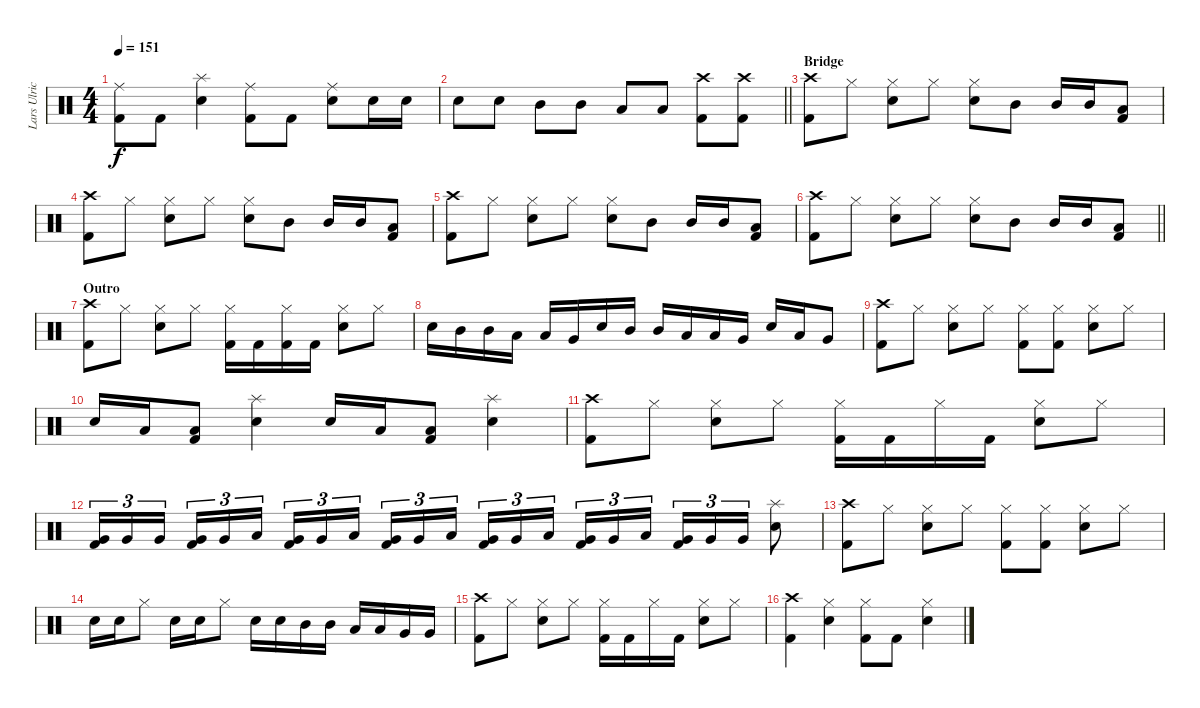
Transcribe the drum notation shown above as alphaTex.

\track ("Lars Ulrich" "Lars Ulric") {instrument percussion}
\staff {score}
\articulation defaults
\ts (4 4)
\tempo 151
\clef neutral
\ks c
("Ride (middle)" "Kick (hit) 2").8{dy f} "Kick (hit) 2".8 ("Splash (hit)" "Snare (hit) 2").4 ("Ride (middle)" "Kick (hit) 2").8 "Kick (hit) 2".8 ("Ride (middle)" "Snare (hit) 2").8 "Snare (hit) 2".16 "Snare (hit) 2".16 |
\barLineRight lightlight "Snare (hit) 2".8 "Snare (hit) 2".8 "Mid Tom (hit)".8 "Mid Tom (hit)".8 "Low Tom (hit)".8 "Low Tom (hit)".8
("Crash high (hit)" "Kick (hit) 2").8 ("Crash high (hit)" "Kick (hit) 2").8 |
\section ("" "Bridge")
("Crash high (hit)" "Kick (hit) 2").8 "Hi-Hat (closed)".8 ("Hi-Hat (closed)" "Snare (hit) 2").8 "Hi-Hat (closed)".8 ("Hi-Hat (closed)" "Snare (hit) 2").8 "Mid Tom (hit)".8 "Mid Tom (hit)".16 "Mid Tom (hit)".16 ("Low Tom (hit)" "Kick (hit) 2").8 |
("Crash high (hit)" "Kick (hit) 2").8 "Hi-Hat (closed)".8 ("Hi-Hat (closed)" "Snare (hit) 2").8 "Hi-Hat (closed)".8 ("Hi-Hat (closed)" "Snare (hit) 2").8 "Mid Tom (hit)".8 "Mid Tom (hit)".16 "Mid Tom (hit)".16 ("Low Tom (hit)" "Kick (hit) 2").8 |
("Crash high (hit)" "Kick (hit) 2").8 "Hi-Hat (closed)".8 ("Hi-Hat (closed)" "Snare (hit) 2").8 "Hi-Hat (closed)".8 ("Hi-Hat (closed)" "Snare (hit) 2").8 "Mid Tom (hit)".8 "Mid Tom (hit)".16 "Mid Tom (hit)".16 ("Low Tom (hit)" "Kick (hit) 2").8 |
\barLineRight lightlight
("Crash high (hit)" "Kick (hit) 2").8 "Hi-Hat (closed)".8 ("Hi-Hat (closed)" "Snare (hit) 2").8 "Hi-Hat (closed)".8 ("Hi-Hat (closed)" "Snare (hit) 2").8 "Mid Tom (hit)".8 "Mid Tom (hit)".16 "Mid Tom (hit)".16 ("Low Tom (hit)" "Kick (hit) 2").8 |
\section ("" "Outro")
("Crash high (hit)" "Kick (hit) 2").8 "Hi-Hat (closed)".8 ("Hi-Hat (closed)" "Snare (hit) 2").8 "Hi-Hat (closed)".8 ("Hi-Hat (closed)" "Kick (hit) 2").16 "Kick (hit) 2".16 ("Hi-Hat (closed)" "Kick (hit) 2").16 "Kick (hit) 2".16 ("Hi-Hat (closed)" "Snare (hit) 2").8 "Hi-Hat (closed)".8 |
"Snare (hit) 2".16 "Mid Tom (hit)".16 "Mid Tom (hit)".16 "Low Tom (hit)".16 "Low Tom (hit)".16 "Very Low Tom (hit)".16 "Snare (hit) 2".16 "Mid Tom (hit)".16 "Mid Tom (hit)".16 "Low Tom (hit)".16 "Low Tom (hit)".16 "Very Low Tom (hit)".16 "Snare (hit) 2".16 "Low Tom (hit)".16 "Very Low Tom (hit)".8 |
("Crash high (hit)" "Kick (hit) 2").8 "Hi-Hat (closed)".8 ("Hi-Hat (closed)" "Snare (hit) 2").8 "Hi-Hat (closed)".8 ("Hi-Hat (closed)" "Kick (hit) 2").8 ("Hi-Hat (closed)" "Kick (hit) 2").8 ("Hi-Hat (closed)" "Snare (hit) 2").8 "Hi-Hat (closed)".8 |
"Snare (hit) 2".16 "Low Tom (hit)".16 ("Low Tom (hit)" "Kick (hit) 2").8 ("Splash (hit)" "Snare (hit) 2").4 "Snare (hit) 2".16 "Low Tom (hit)".16 ("Low Tom (hit)" "Kick (hit) 2").8 ("Splash (hit)" "Snare (hit) 2").4 |
("Crash high (hit)" "Kick (hit) 2").8 "Hi-Hat (closed)".8 ("Hi-Hat (closed)" "Snare (hit) 2").8 "Hi-Hat (closed)".8 ("Hi-Hat (closed)" "Kick (hit) 2").16 "Kick (hit) 2".16 "Hi-Hat (closed)".16 "Kick (hit) 2".16 ("Hi-Hat (closed)" "Snare (hit) 2").8 "Hi-Hat (closed)".8 |
("Very Low Tom (hit)" "Kick (hit) 2").16{tu (3 2)} "Very Low Tom (hit)".16{tu (3 2)} "Very Low Tom (hit)".16{tu (3 2) beam splitsecondary} ("Very Low Tom (hit)" "Kick (hit) 2").16{tu (3 2)} "Very Low Tom (hit)".16{tu (3 2)} "Low Floor Tom (hit)".16{tu (3 2)} ("Very Low Tom (hit)" "Kick (hit) 2").16{tu (3 2)} "Very Low Tom (hit)".16{tu (3 2)} "Low Floor Tom (hit)".16{tu (3 2) beam splitsecondary} ("Very Low Tom (hit)" "Kick (hit) 2").16{tu (3 2)} "Very Low Tom (hit)".16{tu (3 2)} "Low Floor Tom (hit)".16{tu (3 2)} ("Very Low Tom (hit)" "Kick (hit) 2").16{tu (3 2)} "Very Low Tom (hit)".16{tu (3 2)} "Low Floor Tom (hit)".16{tu (3 2) beam splitsecondary} ("Very Low Tom (hit)" "Kick (hit) 2").16{tu (3 2)} "Very Low Tom (hit)".16{tu (3 2)} "Low Floor Tom (hit)".16{tu (3 2)} ("Very Low Tom (hit)" "Kick (hit) 2").16{tu (3 2)} "Very Low Tom (hit)".16{tu (3 2)} "Very Low Tom (hit)".16{tu (3 2)} ("Splash (hit)" "Snare (hit) 2").8 |
("Crash high (hit)" "Kick (hit) 2").8 "Hi-Hat (closed)".8 ("Hi-Hat (closed)" "Snare (hit) 2").8 "Hi-Hat (closed)".8 ("Hi-Hat (closed)" "Kick (hit) 2").8 ("Hi-Hat (closed)" "Kick (hit) 2").8 ("Hi-Hat (closed)" "Snare (hit) 2").8 "Hi-Hat (closed)".8 |
"Snare (hit) 2".16 "Snare (hit) 2".16 "Hi-Hat (closed)".8 "Snare (hit) 2".16 "Snare (hit) 2".16 "Hi-Hat (closed)".8 "Snare (hit) 2".16 "Snare (hit) 2".16 "Mid Tom (hit)".16 "Mid Tom (hit)".16 "Low Tom (hit)".16 "Low Tom (hit)".16 "Very Low Tom (hit)".16 "Very Low Tom (hit)".16 |
("Crash high (hit)" "Kick (hit) 2").8 "Hi-Hat (closed)".8 ("Hi-Hat (closed)" "Snare (hit) 2").8 "Hi-Hat (closed)".8 ("Hi-Hat (closed)" "Kick (hit) 2").16 "Kick (hit) 2".16 "Hi-Hat (closed)".16 "Kick (hit) 2".16 ("Hi-Hat (closed)" "Snare (hit) 2").8 "Hi-Hat (closed)".8 |
("Crash high (hit)" "Kick (hit) 2").4 ("Hi-Hat (closed)" "Snare (hit) 2").4 ("Hi-Hat (closed)" "Kick (hit) 2").8 "Kick (hit) 2".8 ("Hi-Hat (closed)" "Snare (hit) 2").4
